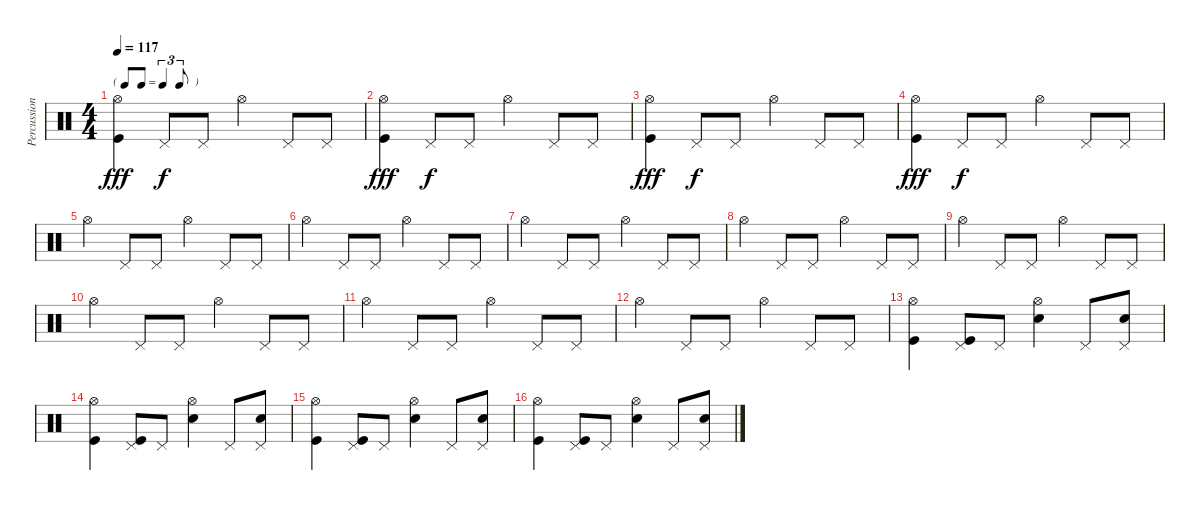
\track ("Percussions" "Percussion") {instrument percussion}
\staff {score}
\articulation defaults
\ts (4 4)
\tf triplet8th
\tempo 117
\clef neutral
\ks c
("Hi-Hat (open)" "Kick (hit)").4{dy fff} "Pedal Hi-Hat (hit)".8{dy f} "Pedal Hi-Hat (hit)".8 "Hi-Hat (open)".4 "Pedal Hi-Hat (hit)".8 "Pedal Hi-Hat (hit)".8 |
("Hi-Hat (open)" "Kick (hit)").4{dy fff} "Pedal Hi-Hat (hit)".8{dy f} "Pedal Hi-Hat (hit)".8 "Hi-Hat (open)".4 "Pedal Hi-Hat (hit)".8 "Pedal Hi-Hat (hit)".8 |
("Hi-Hat (open)" "Kick (hit)").4{dy fff} "Pedal Hi-Hat (hit)".8{dy f} "Pedal Hi-Hat (hit)".8 "Hi-Hat (open)".4 "Pedal Hi-Hat (hit)".8 "Pedal Hi-Hat (hit)".8 |
("Hi-Hat (open)" "Kick (hit)").4{dy fff} "Pedal Hi-Hat (hit)".8{dy f} "Pedal Hi-Hat (hit)".8 "Hi-Hat (open)".4 "Pedal Hi-Hat (hit)".8 "Pedal Hi-Hat (hit)".8 |
"Hi-Hat (open)".4 "Pedal Hi-Hat (hit)".8 "Pedal Hi-Hat (hit)".8 "Hi-Hat (open)".4 "Pedal Hi-Hat (hit)".8 "Pedal Hi-Hat (hit)".8 |
"Hi-Hat (open)".4 "Pedal Hi-Hat (hit)".8 "Pedal Hi-Hat (hit)".8 "Hi-Hat (open)".4 "Pedal Hi-Hat (hit)".8 "Pedal Hi-Hat (hit)".8 |
"Hi-Hat (open)".4 "Pedal Hi-Hat (hit)".8 "Pedal Hi-Hat (hit)".8 "Hi-Hat (open)".4 "Pedal Hi-Hat (hit)".8 "Pedal Hi-Hat (hit)".8 |
"Hi-Hat (open)".4 "Pedal Hi-Hat (hit)".8 "Pedal Hi-Hat (hit)".8 "Hi-Hat (open)".4 "Pedal Hi-Hat (hit)".8 "Pedal Hi-Hat (hit)".8 |
"Hi-Hat (open)".4 "Pedal Hi-Hat (hit)".8 "Pedal Hi-Hat (hit)".8 "Hi-Hat (open)".4 "Pedal Hi-Hat (hit)".8 "Pedal Hi-Hat (hit)".8 |
"Hi-Hat (open)".4 "Pedal Hi-Hat (hit)".8 "Pedal Hi-Hat (hit)".8 "Hi-Hat (open)".4 "Pedal Hi-Hat (hit)".8 "Pedal Hi-Hat (hit)".8 |
"Hi-Hat (open)".4 "Pedal Hi-Hat (hit)".8 "Pedal Hi-Hat (hit)".8 "Hi-Hat (open)".4 "Pedal Hi-Hat (hit)".8 "Pedal Hi-Hat (hit)".8 |
"Hi-Hat (open)".4 "Pedal Hi-Hat (hit)".8 "Pedal Hi-Hat (hit)".8 "Hi-Hat (open)".4 "Pedal Hi-Hat (hit)".8 "Pedal Hi-Hat (hit)".8 |
("Hi-Hat (open)" "Kick (hit)").4 ("Pedal Hi-Hat (hit)" "Kick (hit)").8 "Pedal Hi-Hat (hit)".8 ("Hi-Hat (open)" "Snare (hit) 2").4 "Pedal Hi-Hat (hit)".8 ("Pedal Hi-Hat (hit)" "Snare (hit) 2").8 |
("Hi-Hat (open)" "Kick (hit)").4 ("Pedal Hi-Hat (hit)" "Kick (hit)").8 "Pedal Hi-Hat (hit)".8 ("Hi-Hat (open)" "Snare (hit) 2").4 "Pedal Hi-Hat (hit)".8 ("Pedal Hi-Hat (hit)" "Snare (hit) 2").8 |
("Hi-Hat (open)" "Kick (hit)").4 ("Pedal Hi-Hat (hit)" "Kick (hit)").8 "Pedal Hi-Hat (hit)".8 ("Hi-Hat (open)" "Snare (hit) 2").4 "Pedal Hi-Hat (hit)".8 ("Pedal Hi-Hat (hit)" "Snare (hit) 2").8 |
("Hi-Hat (open)" "Kick (hit)").4 ("Pedal Hi-Hat (hit)" "Kick (hit)").8 "Pedal Hi-Hat (hit)".8 ("Hi-Hat (open)" "Snare (hit) 2").4 "Pedal Hi-Hat (hit)".8 ("Pedal Hi-Hat (hit)" "Snare (hit) 2").8
